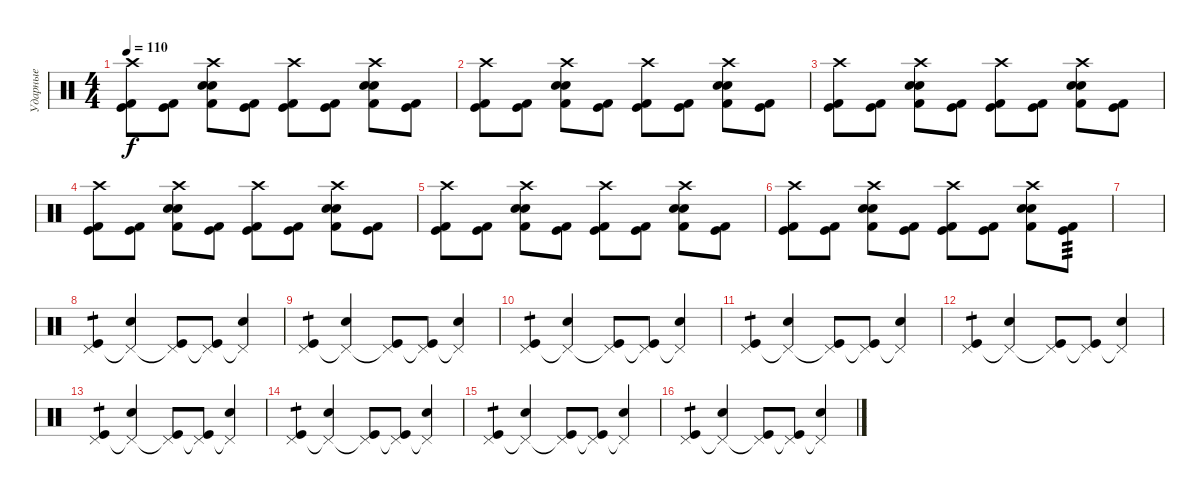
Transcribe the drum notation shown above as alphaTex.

\track ("Ударные" "Ударные") {instrument percussion}
\staff {score}
\articulation defaults
\ts (4 4)
\tempo 110
\clef neutral
\ks c
("Crash high (hit)" "Kick (hit)" "Kick (hit) 2").8{dy f} ("Kick (hit)" "Kick (hit) 2").8 ("Crash high (hit)" "Snare (hit) 2" "Electric Snare (hit)" "Kick (hit) 2").8 ("Kick (hit)" "Kick (hit) 2").8 ("Crash high (hit)" "Kick (hit)" "Kick (hit) 2").8 ("Kick (hit)" "Kick (hit) 2").8 ("Crash high (hit)" "Snare (hit) 2" "Electric Snare (hit)" "Kick (hit) 2").8 ("Kick (hit)" "Kick (hit) 2").8 |
("Crash high (hit)" "Kick (hit)" "Kick (hit) 2").8 ("Kick (hit)" "Kick (hit) 2").8 ("Crash high (hit)" "Snare (hit) 2" "Electric Snare (hit)" "Kick (hit) 2").8 ("Kick (hit)" "Kick (hit) 2").8 ("Crash high (hit)" "Kick (hit)" "Kick (hit) 2").8 ("Kick (hit)" "Kick (hit) 2").8 ("Crash high (hit)" "Snare (hit) 2" "Electric Snare (hit)" "Kick (hit) 2").8 ("Kick (hit)" "Kick (hit) 2").8 |
("Crash high (hit)" "Kick (hit)" "Kick (hit) 2").8 ("Kick (hit)" "Kick (hit) 2").8 ("Crash high (hit)" "Snare (hit) 2" "Electric Snare (hit)" "Kick (hit) 2").8 ("Kick (hit)" "Kick (hit) 2").8 ("Crash high (hit)" "Kick (hit)" "Kick (hit) 2").8 ("Kick (hit)" "Kick (hit) 2").8 ("Crash high (hit)" "Snare (hit) 2" "Electric Snare (hit)" "Kick (hit) 2").8 ("Kick (hit)" "Kick (hit) 2").8 |
("Crash high (hit)" "Kick (hit)" "Kick (hit) 2").8 ("Kick (hit)" "Kick (hit) 2").8 ("Crash high (hit)" "Snare (hit) 2" "Electric Snare (hit)" "Kick (hit) 2").8 ("Kick (hit)" "Kick (hit) 2").8 ("Crash high (hit)" "Kick (hit)" "Kick (hit) 2").8 ("Kick (hit)" "Kick (hit) 2").8 ("Crash high (hit)" "Snare (hit) 2" "Electric Snare (hit)" "Kick (hit) 2").8 ("Kick (hit)" "Kick (hit) 2").8 |
("Crash high (hit)" "Kick (hit)" "Kick (hit) 2").8 ("Kick (hit)" "Kick (hit) 2").8 ("Crash high (hit)" "Snare (hit) 2" "Electric Snare (hit)" "Kick (hit) 2").8 ("Kick (hit)" "Kick (hit) 2").8 ("Crash high (hit)" "Kick (hit)" "Kick (hit) 2").8 ("Kick (hit)" "Kick (hit) 2").8 ("Crash high (hit)" "Snare (hit) 2" "Electric Snare (hit)" "Kick (hit) 2").8 ("Kick (hit)" "Kick (hit) 2").8 |
("Crash high (hit)" "Kick (hit)" "Kick (hit) 2").8 ("Kick (hit)" "Kick (hit) 2").8 ("Crash high (hit)" "Snare (hit) 2" "Electric Snare (hit)" "Kick (hit) 2").8 ("Kick (hit)" "Kick (hit) 2").8 ("Crash high (hit)" "Kick (hit)" "Kick (hit) 2").8 ("Kick (hit)" "Kick (hit) 2").8 ("Crash high (hit)" "Snare (hit) 2" "Electric Snare (hit)" "Kick (hit) 2").8 ("Kick (hit)" "Kick (hit) 2").8{tp 3} |
|
("Pedal Hi-Hat (hit)" "Kick (hit)").4{tp 1} ("Pedal Hi-Hat (hit)"{t} "Electric Snare (hit)").4 ("Pedal Hi-Hat (hit)"{t} "Kick (hit)").8 ("Pedal Hi-Hat (hit)"{t} "Kick (hit)").8 ("Pedal Hi-Hat (hit)"{t} "Electric Snare (hit)").4 |
("Pedal Hi-Hat (hit)" "Kick (hit)").4{tp 1} ("Pedal Hi-Hat (hit)"{t} "Electric Snare (hit)").4 ("Pedal Hi-Hat (hit)"{t} "Kick (hit)").8 ("Pedal Hi-Hat (hit)"{t} "Kick (hit)").8 ("Pedal Hi-Hat (hit)"{t} "Electric Snare (hit)").4 |
("Pedal Hi-Hat (hit)" "Kick (hit)").4{tp 1} ("Pedal Hi-Hat (hit)"{t} "Electric Snare (hit)").4 ("Pedal Hi-Hat (hit)"{t} "Kick (hit)").8 ("Pedal Hi-Hat (hit)"{t} "Kick (hit)").8 ("Pedal Hi-Hat (hit)"{t} "Electric Snare (hit)").4 |
("Pedal Hi-Hat (hit)" "Kick (hit)").4{tp 1} ("Pedal Hi-Hat (hit)"{t} "Electric Snare (hit)").4 ("Pedal Hi-Hat (hit)"{t} "Kick (hit)").8 ("Pedal Hi-Hat (hit)"{t} "Kick (hit)").8 ("Pedal Hi-Hat (hit)"{t} "Electric Snare (hit)").4 |
("Pedal Hi-Hat (hit)" "Kick (hit)").4{tp 1} ("Pedal Hi-Hat (hit)"{t} "Electric Snare (hit)").4 ("Pedal Hi-Hat (hit)"{t} "Kick (hit)").8 ("Pedal Hi-Hat (hit)"{t} "Kick (hit)").8 ("Pedal Hi-Hat (hit)"{t} "Electric Snare (hit)").4 |
("Pedal Hi-Hat (hit)" "Kick (hit)").4{tp 1} ("Pedal Hi-Hat (hit)"{t} "Electric Snare (hit)").4 ("Pedal Hi-Hat (hit)"{t} "Kick (hit)").8 ("Pedal Hi-Hat (hit)"{t} "Kick (hit)").8 ("Pedal Hi-Hat (hit)"{t} "Electric Snare (hit)").4 |
("Pedal Hi-Hat (hit)" "Kick (hit)").4{tp 1} ("Pedal Hi-Hat (hit)"{t} "Electric Snare (hit)").4 ("Pedal Hi-Hat (hit)"{t} "Kick (hit)").8 ("Pedal Hi-Hat (hit)"{t} "Kick (hit)").8 ("Pedal Hi-Hat (hit)"{t} "Electric Snare (hit)").4 |
("Pedal Hi-Hat (hit)" "Kick (hit)").4{tp 1} ("Pedal Hi-Hat (hit)"{t} "Electric Snare (hit)").4 ("Pedal Hi-Hat (hit)"{t} "Kick (hit)").8 ("Pedal Hi-Hat (hit)"{t} "Kick (hit)").8 ("Pedal Hi-Hat (hit)"{t} "Electric Snare (hit)").4 |
("Pedal Hi-Hat (hit)" "Kick (hit)").4{tp 1} ("Pedal Hi-Hat (hit)"{t} "Electric Snare (hit)").4 ("Pedal Hi-Hat (hit)"{t} "Kick (hit)").8 ("Pedal Hi-Hat (hit)"{t} "Kick (hit)").8 ("Pedal Hi-Hat (hit)"{t} "Electric Snare (hit)").4
